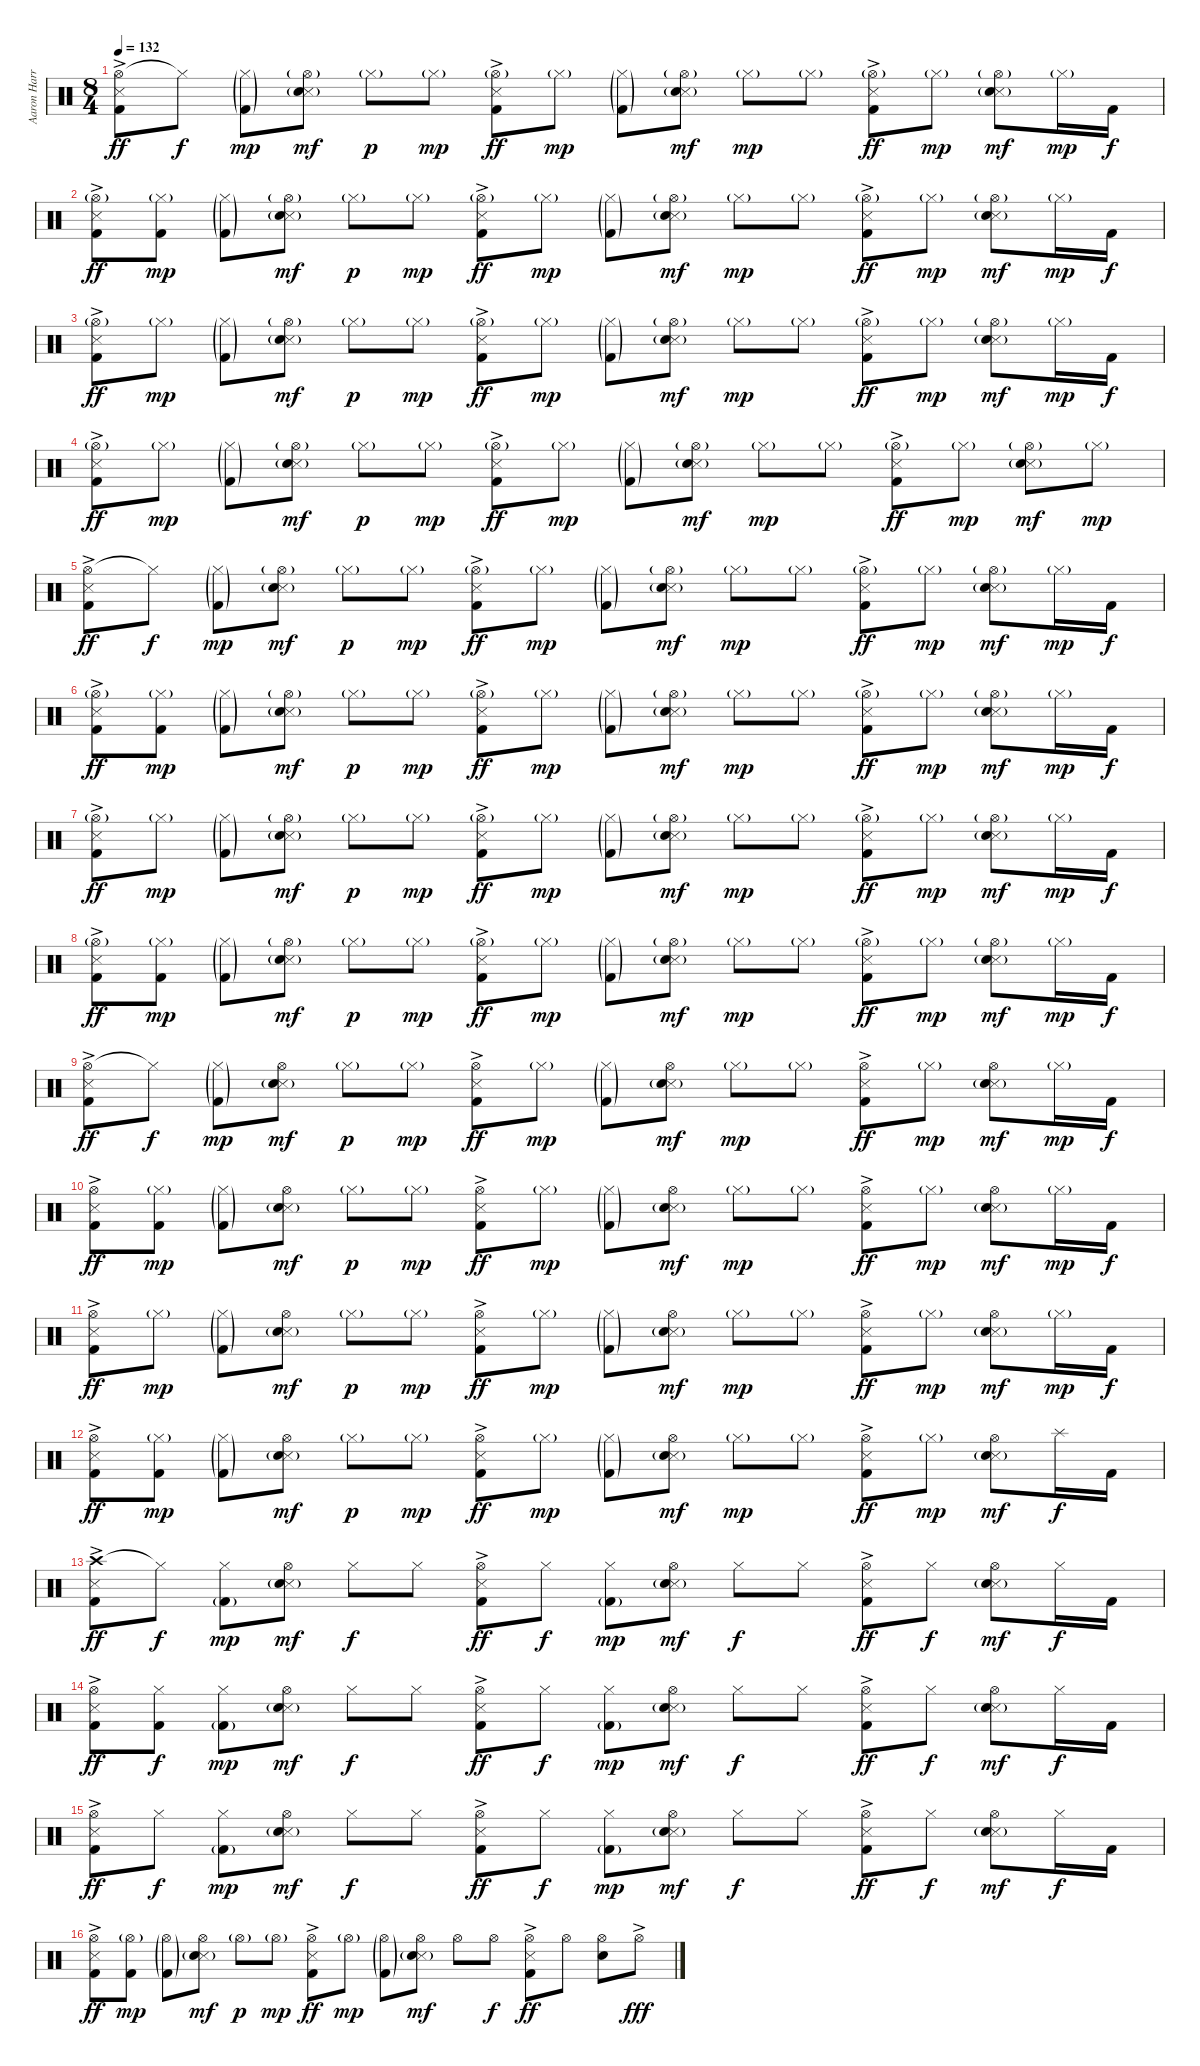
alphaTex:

\track ("Aaron Harris" "Aaron Harr") {instrument percussion}
\staff {score}
\articulation defaults
\ts (8 4)
\tempo 132
\clef neutral
\ks c
("Hi-Hat (open)" "Snare (side stick) 3" "Kick (hit) 2"{ac}).8{dy ff} "Hi-Hat (closed)"{t}.8{dy f} ("Hi-Hat (closed)"{g} "Kick (hit) 2"{g}).8{dy mp} ("Hi-Hat (open)"{g} "Snare (side stick) 3" "Snare (hit) 2"{g}).8{dy mf} "Hi-Hat (closed)"{g}.8{dy p} "Hi-Hat (closed)"{g}.8{dy mp} ("Hi-Hat (open)"{g} "Snare (side stick) 3" "Kick (hit) 2"{ac}).8{dy ff} "Hi-Hat (closed)"{g}.8{dy mp} ("Hi-Hat (closed)"{g} "Kick (hit) 2"{g}).8 ("Hi-Hat (open)"{g} "Snare (side stick) 3" "Snare (hit) 2"{g}).8{dy mf} "Hi-Hat (closed)"{g}.8{dy mp} "Hi-Hat (closed)"{g}.8 ("Hi-Hat (open)"{g} "Snare (side stick) 3" "Kick (hit) 2"{ac}).8{dy ff} "Hi-Hat (closed)"{g}.8{dy mp} ("Hi-Hat (open)"{g} "Snare (side stick) 3" "Snare (hit) 2"{g}).8{dy mf} "Hi-Hat (closed)"{g}.16{dy mp} "Kick (hit) 2".16{dy f} |
("Hi-Hat (open)"{g} "Snare (side stick) 3" "Kick (hit) 2"{ac}).8{dy ff} ("Hi-Hat (closed)"{g} "Kick (hit) 2").8{dy mp} ("Hi-Hat (closed)"{g} "Kick (hit) 2"{g}).8 ("Hi-Hat (open)"{g} "Snare (side stick) 3" "Snare (hit) 2"{g}).8{dy mf} "Hi-Hat (closed)"{g}.8{dy p} "Hi-Hat (closed)"{g}.8{dy mp} ("Hi-Hat (open)"{g} "Snare (side stick) 3" "Kick (hit) 2"{ac}).8{dy ff} "Hi-Hat (closed)"{g}.8{dy mp} ("Hi-Hat (closed)"{g} "Kick (hit) 2"{g}).8 ("Hi-Hat (open)"{g} "Snare (side stick) 3" "Snare (hit) 2"{g}).8{dy mf} "Hi-Hat (closed)"{g}.8{dy mp} "Hi-Hat (closed)"{g}.8 ("Hi-Hat (open)"{g} "Snare (side stick) 3" "Kick (hit) 2"{ac}).8{dy ff} "Hi-Hat (closed)"{g}.8{dy mp} ("Hi-Hat (open)"{g} "Snare (side stick) 3" "Snare (hit) 2"{g}).8{dy mf} "Hi-Hat (closed)"{g}.16{dy mp} "Kick (hit) 2".16{dy f} |
("Hi-Hat (open)"{g} "Snare (side stick) 3" "Kick (hit) 2"{ac}).8{dy ff} "Hi-Hat (closed)"{g}.8{dy mp} ("Hi-Hat (closed)"{g} "Kick (hit) 2"{g}).8 ("Hi-Hat (open)"{g} "Snare (side stick) 3" "Snare (hit) 2"{g}).8{dy mf} "Hi-Hat (closed)"{g}.8{dy p} "Hi-Hat (closed)"{g}.8{dy mp} ("Hi-Hat (open)"{g} "Snare (side stick) 3" "Kick (hit) 2"{ac}).8{dy ff} "Hi-Hat (closed)"{g}.8{dy mp} ("Hi-Hat (closed)"{g} "Kick (hit) 2"{g}).8 ("Hi-Hat (open)"{g} "Snare (side stick) 3" "Snare (hit) 2"{g}).8{dy mf} "Hi-Hat (closed)"{g}.8{dy mp} "Hi-Hat (closed)"{g}.8 ("Hi-Hat (open)"{g} "Snare (side stick) 3" "Kick (hit) 2"{ac}).8{dy ff} "Hi-Hat (closed)"{g}.8{dy mp} ("Hi-Hat (open)"{g} "Snare (side stick) 3" "Snare (hit) 2"{g}).8{dy mf} "Hi-Hat (closed)"{g}.16{dy mp} "Kick (hit) 2".16{dy f} |
("Hi-Hat (open)"{g} "Snare (side stick) 3" "Kick (hit) 2"{ac}).8{dy ff} "Hi-Hat (closed)"{g}.8{dy mp} ("Hi-Hat (closed)"{g} "Kick (hit) 2"{g}).8 ("Hi-Hat (open)"{g} "Snare (side stick) 3" "Snare (hit) 2"{g}).8{dy mf} "Hi-Hat (closed)"{g}.8{dy p} "Hi-Hat (closed)"{g}.8{dy mp} ("Hi-Hat (open)"{g} "Snare (side stick) 3" "Kick (hit) 2"{ac}).8{dy ff} "Hi-Hat (closed)"{g}.8{dy mp} ("Hi-Hat (closed)"{g} "Kick (hit) 2"{g}).8 ("Hi-Hat (open)"{g} "Snare (side stick) 3" "Snare (hit) 2"{g}).8{dy mf} "Hi-Hat (closed)"{g}.8{dy mp} "Hi-Hat (closed)"{g}.8 ("Hi-Hat (open)"{g} "Snare (side stick) 3" "Kick (hit) 2"{ac}).8{dy ff} "Hi-Hat (closed)"{g}.8{dy mp} ("Hi-Hat (open)"{g} "Snare (side stick) 3" "Snare (hit) 2"{g}).8{dy mf} "Hi-Hat (closed)"{g}.8{dy mp} |
("Hi-Hat (open)" "Snare (side stick) 3" "Kick (hit) 2"{ac}).8{dy ff} "Hi-Hat (closed)"{t}.8{dy f} ("Hi-Hat (closed)"{g} "Kick (hit) 2"{g}).8{dy mp} ("Hi-Hat (open)"{g} "Snare (side stick) 3" "Snare (hit) 2"{g}).8{dy mf} "Hi-Hat (closed)"{g}.8{dy p} "Hi-Hat (closed)"{g}.8{dy mp} ("Hi-Hat (open)"{g} "Snare (side stick) 3" "Kick (hit) 2"{ac}).8{dy ff} "Hi-Hat (closed)"{g}.8{dy mp} ("Hi-Hat (closed)"{g} "Kick (hit) 2"{g}).8 ("Hi-Hat (open)"{g} "Snare (side stick) 3" "Snare (hit) 2"{g}).8{dy mf} "Hi-Hat (closed)"{g}.8{dy mp} "Hi-Hat (closed)"{g}.8 ("Hi-Hat (open)"{g} "Snare (side stick) 3" "Kick (hit) 2"{ac}).8{dy ff} "Hi-Hat (closed)"{g}.8{dy mp} ("Hi-Hat (open)"{g} "Snare (side stick) 3" "Snare (hit) 2"{g}).8{dy mf} "Hi-Hat (closed)"{g}.16{dy mp} "Kick (hit) 2".16{dy f} |
("Hi-Hat (open)"{g} "Snare (side stick) 3" "Kick (hit) 2"{ac}).8{dy ff} ("Hi-Hat (closed)"{g} "Kick (hit) 2").8{dy mp} ("Hi-Hat (closed)"{g} "Kick (hit) 2"{g}).8 ("Hi-Hat (open)"{g} "Snare (side stick) 3" "Snare (hit) 2"{g}).8{dy mf} "Hi-Hat (closed)"{g}.8{dy p} "Hi-Hat (closed)"{g}.8{dy mp} ("Hi-Hat (open)"{g} "Snare (side stick) 3" "Kick (hit) 2"{ac}).8{dy ff} "Hi-Hat (closed)"{g}.8{dy mp} ("Hi-Hat (closed)"{g} "Kick (hit) 2"{g}).8 ("Hi-Hat (open)"{g} "Snare (side stick) 3" "Snare (hit) 2"{g}).8{dy mf} "Hi-Hat (closed)"{g}.8{dy mp} "Hi-Hat (closed)"{g}.8 ("Hi-Hat (open)"{g} "Snare (side stick) 3" "Kick (hit) 2"{ac}).8{dy ff} "Hi-Hat (closed)"{g}.8{dy mp} ("Hi-Hat (open)"{g} "Snare (side stick) 3" "Snare (hit) 2"{g}).8{dy mf} "Hi-Hat (closed)"{g}.16{dy mp} "Kick (hit) 2".16{dy f} |
("Hi-Hat (open)"{g} "Snare (side stick) 3" "Kick (hit) 2"{ac}).8{dy ff} "Hi-Hat (closed)"{g}.8{dy mp} ("Hi-Hat (closed)"{g} "Kick (hit) 2"{g}).8 ("Hi-Hat (open)"{g} "Snare (side stick) 3" "Snare (hit) 2"{g}).8{dy mf} "Hi-Hat (closed)"{g}.8{dy p} "Hi-Hat (closed)"{g}.8{dy mp} ("Hi-Hat (open)"{g} "Snare (side stick) 3" "Kick (hit) 2"{ac}).8{dy ff} "Hi-Hat (closed)"{g}.8{dy mp} ("Hi-Hat (closed)"{g} "Kick (hit) 2"{g}).8 ("Hi-Hat (open)"{g} "Snare (side stick) 3" "Snare (hit) 2"{g}).8{dy mf} "Hi-Hat (closed)"{g}.8{dy mp} "Hi-Hat (closed)"{g}.8 ("Hi-Hat (open)"{g} "Snare (side stick) 3" "Kick (hit) 2"{ac}).8{dy ff} "Hi-Hat (closed)"{g}.8{dy mp} ("Hi-Hat (open)"{g} "Snare (side stick) 3" "Snare (hit) 2"{g}).8{dy mf} "Hi-Hat (closed)"{g}.16{dy mp} "Kick (hit) 2".16{dy f} |
("Hi-Hat (open)"{g} "Snare (side stick) 3" "Kick (hit) 2"{ac}).8{dy ff} ("Hi-Hat (closed)"{g} "Kick (hit) 2").8{dy mp} ("Hi-Hat (closed)"{g} "Kick (hit) 2"{g}).8 ("Hi-Hat (open)"{g} "Snare (side stick) 3" "Snare (hit) 2"{g}).8{dy mf} "Hi-Hat (closed)"{g}.8{dy p} "Hi-Hat (closed)"{g}.8{dy mp} ("Hi-Hat (open)"{g} "Snare (side stick) 3" "Kick (hit) 2"{ac}).8{dy ff} "Hi-Hat (closed)"{g}.8{dy mp} ("Hi-Hat (closed)"{g} "Kick (hit) 2"{g}).8 ("Hi-Hat (open)"{g} "Snare (side stick) 3" "Snare (hit) 2"{g}).8{dy mf} "Hi-Hat (closed)"{g}.8{dy mp} "Hi-Hat (closed)"{g}.8 ("Hi-Hat (open)"{g} "Snare (side stick) 3" "Kick (hit) 2"{ac}).8{dy ff} "Hi-Hat (closed)"{g}.8{dy mp} ("Hi-Hat (open)"{g} "Snare (side stick) 3" "Snare (hit) 2"{g}).8{dy mf} "Hi-Hat (closed)"{g}.16{dy mp} "Kick (hit) 2".16{dy f} |
("Hi-Hat (open)" "Snare (side stick) 3" "Kick (hit) 2"{ac}).8{dy ff} "Hi-Hat (closed)"{t}.8{dy f} ("Hi-Hat (closed)"{g} "Kick (hit) 2"{g}).8{dy mp} ("Hi-Hat (open)" "Snare (side stick) 3" "Snare (hit) 2"{g}).8{dy mf} "Hi-Hat (closed)"{g}.8{dy p} "Hi-Hat (closed)"{g}.8{dy mp} ("Hi-Hat (open)" "Snare (side stick) 3" "Kick (hit) 2"{ac}).8{dy ff} "Hi-Hat (closed)"{g}.8{dy mp} ("Hi-Hat (closed)"{g} "Kick (hit) 2"{g}).8 ("Hi-Hat (open)" "Snare (side stick) 3" "Snare (hit) 2"{g}).8{dy mf} "Hi-Hat (closed)"{g}.8{dy mp} "Hi-Hat (closed)"{g}.8 ("Hi-Hat (open)" "Snare (side stick) 3" "Kick (hit) 2"{ac}).8{dy ff} "Hi-Hat (closed)"{g}.8{dy mp} ("Hi-Hat (open)" "Snare (side stick) 3" "Snare (hit) 2"{g}).8{dy mf} "Hi-Hat (closed)"{g}.16{dy mp} "Kick (hit) 2".16{dy f} |
("Hi-Hat (open)" "Snare (side stick) 3" "Kick (hit) 2"{ac}).8{dy ff} ("Hi-Hat (closed)"{g} "Kick (hit) 2").8{dy mp} ("Hi-Hat (closed)"{g} "Kick (hit) 2"{g}).8 ("Hi-Hat (open)" "Snare (side stick) 3" "Snare (hit) 2"{g}).8{dy mf} "Hi-Hat (closed)"{g}.8{dy p} "Hi-Hat (closed)"{g}.8{dy mp} ("Hi-Hat (open)" "Snare (side stick) 3" "Kick (hit) 2"{ac}).8{dy ff} "Hi-Hat (closed)"{g}.8{dy mp} ("Hi-Hat (closed)"{g} "Kick (hit) 2"{g}).8 ("Hi-Hat (open)" "Snare (side stick) 3" "Snare (hit) 2"{g}).8{dy mf} "Hi-Hat (closed)"{g}.8{dy mp} "Hi-Hat (closed)"{g}.8 ("Hi-Hat (open)" "Snare (side stick) 3" "Kick (hit) 2"{ac}).8{dy ff} "Hi-Hat (closed)"{g}.8{dy mp} ("Hi-Hat (open)" "Snare (side stick) 3" "Snare (hit) 2"{g}).8{dy mf} "Hi-Hat (closed)"{g}.16{dy mp} "Kick (hit) 2".16{dy f} |
("Hi-Hat (open)" "Snare (side stick) 3" "Kick (hit) 2"{ac}).8{dy ff} "Hi-Hat (closed)"{g}.8{dy mp} ("Hi-Hat (closed)"{g} "Kick (hit) 2"{g}).8 ("Hi-Hat (open)" "Snare (side stick) 3" "Snare (hit) 2"{g}).8{dy mf} "Hi-Hat (closed)"{g}.8{dy p} "Hi-Hat (closed)"{g}.8{dy mp} ("Hi-Hat (open)" "Snare (side stick) 3" "Kick (hit) 2"{ac}).8{dy ff} "Hi-Hat (closed)"{g}.8{dy mp} ("Hi-Hat (closed)"{g} "Kick (hit) 2"{g}).8 ("Hi-Hat (open)" "Snare (side stick) 3" "Snare (hit) 2"{g}).8{dy mf} "Hi-Hat (closed)"{g}.8{dy mp} "Hi-Hat (closed)"{g}.8 ("Hi-Hat (open)" "Snare (side stick) 3" "Kick (hit) 2"{ac}).8{dy ff} "Hi-Hat (closed)"{g}.8{dy mp} ("Hi-Hat (open)" "Snare (side stick) 3" "Snare (hit) 2"{g}).8{dy mf} "Hi-Hat (closed)"{g}.16{dy mp} "Kick (hit) 2".16{dy f} |
("Hi-Hat (open)" "Snare (side stick) 3" "Kick (hit) 2"{ac}).8{dy ff} ("Hi-Hat (closed)"{g} "Kick (hit) 2").8{dy mp} ("Hi-Hat (closed)"{g} "Kick (hit) 2"{g}).8 ("Hi-Hat (open)" "Snare (side stick) 3" "Snare (hit) 2"{g}).8{dy mf} "Hi-Hat (closed)"{g}.8{dy p} "Hi-Hat (closed)"{g}.8{dy mp} ("Hi-Hat (open)" "Snare (side stick) 3" "Kick (hit) 2"{ac}).8{dy ff} "Hi-Hat (closed)"{g}.8{dy mp} ("Hi-Hat (closed)"{g} "Kick (hit) 2"{g}).8 ("Hi-Hat (open)" "Snare (side stick) 3" "Snare (hit) 2"{g}).8{dy mf} "Hi-Hat (closed)"{g}.8{dy mp} "Hi-Hat (closed)"{g}.8 ("Hi-Hat (open)" "Snare (side stick) 3" "Kick (hit) 2"{ac}).8{dy ff} "Hi-Hat (closed)"{g}.8{dy mp} ("Hi-Hat (open)" "Snare (side stick) 3" "Snare (hit) 2"{g}).8{dy mf} "Splash (hit)".16{dy f} "Kick (hit) 2".16 |
("Crash high (hit)" "Snare (side stick) 3" "Kick (hit) 2"{ac}).8{dy ff} "Hi-Hat (closed)"{t}.8{dy f} ("Hi-Hat (closed)" "Kick (hit) 2"{g}).8{dy mp} ("Hi-Hat (open)" "Snare (side stick) 3" "Snare (hit) 2"{g}).8{dy mf} "Hi-Hat (closed)".8{dy f} "Hi-Hat (closed)".8 ("Hi-Hat (open)" "Snare (side stick) 3" "Kick (hit) 2"{ac}).8{dy ff} "Hi-Hat (closed)".8{dy f} ("Hi-Hat (closed)" "Kick (hit) 2"{g}).8{dy mp} ("Hi-Hat (open)" "Snare (side stick) 3" "Snare (hit) 2"{g}).8{dy mf} "Hi-Hat (closed)".8{dy f} "Hi-Hat (closed)".8 ("Hi-Hat (open)" "Snare (side stick) 3" "Kick (hit) 2"{ac}).8{dy ff} "Hi-Hat (closed)".8{dy f} ("Hi-Hat (open)" "Snare (side stick) 3" "Snare (hit) 2"{g}).8{dy mf} "Hi-Hat (closed)".16{dy f} "Kick (hit) 2".16 |
("Hi-Hat (open)" "Snare (side stick) 3" "Kick (hit) 2"{ac}).8{dy ff} ("Hi-Hat (closed)" "Kick (hit) 2").8{dy f} ("Hi-Hat (closed)" "Kick (hit) 2"{g}).8{dy mp} ("Hi-Hat (open)" "Snare (side stick) 3" "Snare (hit) 2"{g}).8{dy mf} "Hi-Hat (closed)".8{dy f} "Hi-Hat (closed)".8 ("Hi-Hat (open)" "Snare (side stick) 3" "Kick (hit) 2"{ac}).8{dy ff} "Hi-Hat (closed)".8{dy f} ("Hi-Hat (closed)" "Kick (hit) 2"{g}).8{dy mp} ("Hi-Hat (open)" "Snare (side stick) 3" "Snare (hit) 2"{g}).8{dy mf} "Hi-Hat (closed)".8{dy f} "Hi-Hat (closed)".8 ("Hi-Hat (open)" "Snare (side stick) 3" "Kick (hit) 2"{ac}).8{dy ff} "Hi-Hat (closed)".8{dy f} ("Hi-Hat (open)" "Snare (side stick) 3" "Snare (hit) 2"{g}).8{dy mf} "Hi-Hat (closed)".16{dy f} "Kick (hit) 2".16 |
("Hi-Hat (open)" "Snare (side stick) 3" "Kick (hit) 2"{ac}).8{dy ff} "Hi-Hat (closed)".8{dy f} ("Hi-Hat (closed)" "Kick (hit) 2"{g}).8{dy mp} ("Hi-Hat (open)" "Snare (side stick) 3" "Snare (hit) 2"{g}).8{dy mf} "Hi-Hat (closed)".8{dy f} "Hi-Hat (closed)".8 ("Hi-Hat (open)" "Snare (side stick) 3" "Kick (hit) 2"{ac}).8{dy ff} "Hi-Hat (closed)".8{dy f} ("Hi-Hat (closed)" "Kick (hit) 2"{g}).8{dy mp} ("Hi-Hat (open)" "Snare (side stick) 3" "Snare (hit) 2"{g}).8{dy mf} "Hi-Hat (closed)".8{dy f} "Hi-Hat (closed)".8 ("Hi-Hat (open)" "Snare (side stick) 3" "Kick (hit) 2"{ac}).8{dy ff} "Hi-Hat (closed)".8{dy f} ("Hi-Hat (open)" "Snare (side stick) 3" "Snare (hit) 2"{g}).8{dy mf} "Hi-Hat (closed)".16{dy f} "Kick (hit) 2".16 |
("Hi-Hat (open)" "Snare (side stick) 3" "Kick (hit) 2"{ac}).8{dy ff} ("Hi-Hat (open)"{g} "Kick (hit) 2").8{dy mp} ("Hi-Hat (open)"{g} "Kick (hit) 2"{g}).8 ("Hi-Hat (open)" "Snare (side stick) 3" "Snare (hit) 2"{g}).8{dy mf} "Hi-Hat (open)"{g}.8{dy p} "Hi-Hat (open)"{g}.8{dy mp} ("Hi-Hat (open)" "Snare (side stick) 3" "Kick (hit) 2"{ac}).8{dy ff} "Hi-Hat (open)"{g}.8{dy mp} ("Hi-Hat (open)"{g} "Kick (hit) 2"{g}).8 ("Hi-Hat (open)" "Snare (side stick) 3" "Snare (hit) 2"{g}).8{dy mf} "Hi-Hat (open)".8 "Hi-Hat (open)".8{dy f} ("Hi-Hat (open)" "Snare (side stick) 3" "Kick (hit) 2"{ac}).8{dy ff} "Hi-Hat (open)".8 ("Hi-Hat (open)" "Snare (hit) 2").8 "Hi-Hat (open)"{ac}.8{dy fff}
